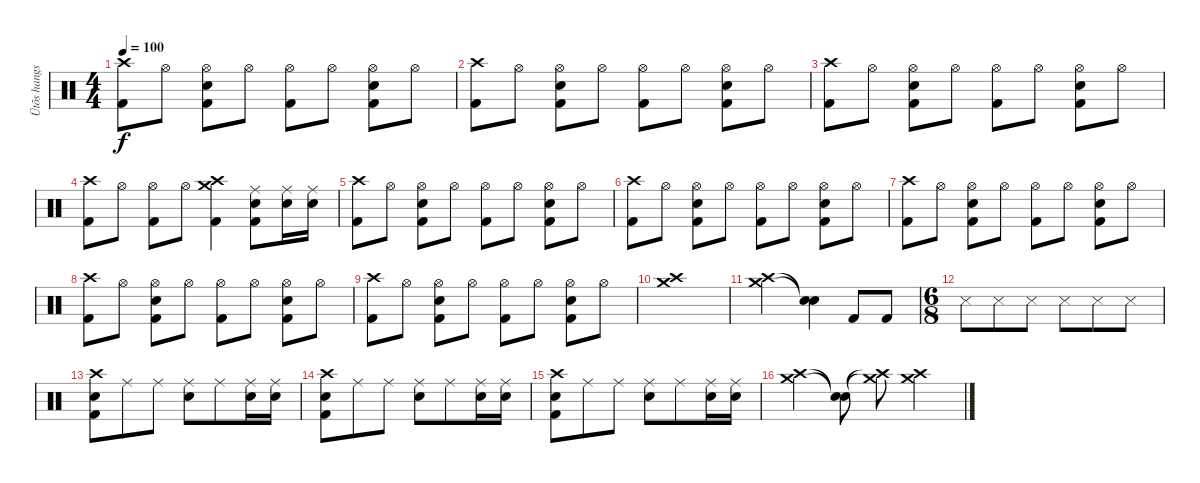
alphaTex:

\track ("Ütõs hangszer" "Ütõs hangs") {instrument percussion}
\staff {score}
\articulation defaults
\ts (4 4)
\tempo 100
\clef neutral
\ks c
("Crash high (hit)" "Kick (hit) 2").8{dy f} "Hi-Hat (open)".8 ("Hi-Hat (open)" "Snare (hit) 2" "Kick (hit) 2").8 "Hi-Hat (open)".8 ("Hi-Hat (open)" "Kick (hit) 2").8 "Hi-Hat (open)".8 ("Hi-Hat (open)" "Snare (hit) 2" "Kick (hit) 2").8 "Hi-Hat (open)".8 |
("Crash high (hit)" "Kick (hit) 2").8 "Hi-Hat (open)".8 ("Hi-Hat (open)" "Snare (hit) 2" "Kick (hit) 2").8 "Hi-Hat (open)".8 ("Hi-Hat (open)" "Kick (hit) 2").8 "Hi-Hat (open)".8 ("Hi-Hat (open)" "Snare (hit) 2" "Kick (hit) 2").8 "Hi-Hat (open)".8 |
("Crash high (hit)" "Kick (hit) 2").8 "Hi-Hat (open)".8 ("Hi-Hat (open)" "Snare (hit) 2" "Kick (hit) 2").8 "Hi-Hat (open)".8 ("Hi-Hat (open)" "Kick (hit) 2").8 "Hi-Hat (open)".8 ("Hi-Hat (open)" "Snare (hit) 2" "Kick (hit) 2").8 "Hi-Hat (open)".8 |
("Crash high (hit)" "Kick (hit) 2").8 "Hi-Hat (open)".8 ("Hi-Hat (open)" "Kick (hit) 2").8 "Hi-Hat (open)".8 ("Crash high (hit)" "Crash medium (hit)" "Kick (hit) 2").4 ("Ride (middle)" "Snare (hit) 2" "Kick (hit) 2").8 ("Ride (middle)" "Snare (hit) 2").16 ("Ride (middle)" "Snare (hit) 2").16 |
("Crash high (hit)" "Kick (hit) 2").8 "Hi-Hat (open)".8 ("Hi-Hat (open)" "Snare (hit) 2" "Kick (hit) 2").8 "Hi-Hat (open)".8 ("Hi-Hat (open)" "Kick (hit) 2").8 "Hi-Hat (open)".8 ("Hi-Hat (open)" "Snare (hit) 2" "Kick (hit) 2").8 "Hi-Hat (open)".8 |
("Crash high (hit)" "Kick (hit) 2").8 "Hi-Hat (open)".8 ("Hi-Hat (open)" "Snare (hit) 2" "Kick (hit) 2").8 "Hi-Hat (open)".8 ("Hi-Hat (open)" "Kick (hit) 2").8 "Hi-Hat (open)".8 ("Hi-Hat (open)" "Snare (hit) 2" "Kick (hit) 2").8 "Hi-Hat (open)".8 |
("Crash high (hit)" "Kick (hit) 2").8 "Hi-Hat (open)".8 ("Hi-Hat (open)" "Snare (hit) 2" "Kick (hit) 2").8 "Hi-Hat (open)".8 ("Hi-Hat (open)" "Kick (hit) 2").8 "Hi-Hat (open)".8 ("Hi-Hat (open)" "Snare (hit) 2" "Kick (hit) 2").8 "Hi-Hat (open)".8 |
("Crash high (hit)" "Kick (hit) 2").8 "Hi-Hat (open)".8 ("Hi-Hat (open)" "Snare (hit) 2" "Kick (hit) 2").8 "Hi-Hat (open)".8 ("Hi-Hat (open)" "Kick (hit) 2").8 "Hi-Hat (open)".8 ("Hi-Hat (open)" "Snare (hit) 2" "Kick (hit) 2").8 "Hi-Hat (open)".8 |
("Crash high (hit)" "Kick (hit) 2").8 "Hi-Hat (open)".8 ("Hi-Hat (open)" "Snare (hit) 2" "Kick (hit) 2").8 "Hi-Hat (open)".8 ("Hi-Hat (open)" "Kick (hit) 2").8 "Hi-Hat (open)".8 ("Hi-Hat (open)" "Snare (hit) 2" "Kick (hit) 2").8 "Hi-Hat (open)".8 |
("Crash high (hit)" "Crash medium (hit)").1 |
("Crash high (hit)" "Crash medium (hit)").2 ("Snare (hit)"{t} "Snare (hit)"{t}).4 "Kick (hit) 2".8 "Kick (hit) 2".8 |
\ts (6 8)
"Snare (side stick) 3".8 "Snare (side stick) 3".8 "Snare (side stick) 3".8 "Snare (side stick) 3".8 "Snare (side stick) 3".8 "Snare (side stick) 3".8 |
("Crash high (hit)" "Snare (hit) 2" "Kick (hit) 2").8 "Ride (middle)".8 "Ride (middle)".8 ("Ride (middle)" "Snare (hit) 2").8 "Ride (middle)".8 ("Ride (middle)" "Snare (hit) 2").16 ("Ride (middle)" "Snare (hit) 2").16 |
("Crash high (hit)" "Snare (hit) 2" "Kick (hit) 2").8 "Ride (middle)".8 "Ride (middle)".8 ("Ride (middle)" "Snare (hit) 2").8 "Ride (middle)".8 ("Ride (middle)" "Snare (hit) 2").16 ("Ride (middle)" "Snare (hit) 2").16 |
("Crash high (hit)" "Snare (hit) 2" "Kick (hit) 2").8 "Ride (middle)".8 "Ride (middle)".8 ("Ride (middle)" "Snare (hit) 2").8 "Ride (middle)".8 ("Ride (middle)" "Snare (hit) 2").16 ("Ride (middle)" "Snare (hit) 2").16 |
("Crash high (hit)" "Crash medium (hit)").4 ("Snare (hit)"{t} "Snare (hit)"{t}).8 ("Crash high (hit)"{t} "Crash medium (hit)"{t}).8 ("Crash high (hit)" "Crash medium (hit)").4
